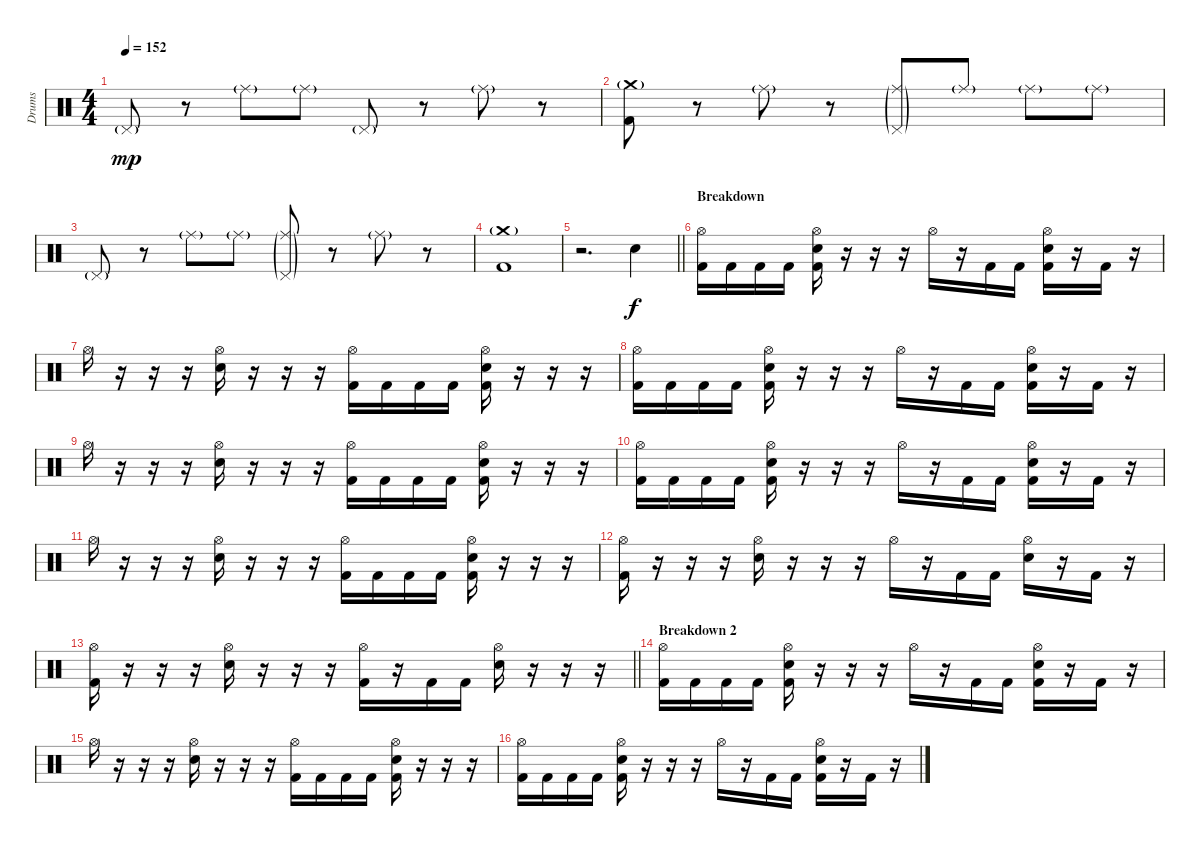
\track ("Drums" "Drums") {instrument percussion}
\staff
\articulation defaults
\ts (4 4)
\tempo 152
\clef neutral
\ks c "Pedal Hi-Hat (hit)"{g}.8{dy mp}
r.8 "Ride (middle)"{g}.8 "Ride (middle)"{g}.8 "Pedal Hi-Hat (hit)"{g}.8 r.8 "Ride (middle)"{g}.8 r.8 |
("Crash medium (hit)"{g} "Kick (hit) 2").8 r.8 "Ride (middle)"{g}.8 r.8 ("Ride (middle)"{g} "Pedal Hi-Hat (hit)"{g}).8 "Ride (middle)"{g}.8 "Ride (middle)"{g}.8 "Ride (middle)"{g}.8 |
"Pedal Hi-Hat (hit)"{g}.8 r.8 "Ride (middle)"{g}.8 "Ride (middle)"{g}.8 ("Ride (middle)"{g} "Pedal Hi-Hat (hit)"{g}).8 r.8 "Ride (middle)"{g}.8 r.8 |
("Crash medium (hit)"{g} "Kick (hit) 2").1 |
\barLineRight lightlight
r.2{d} "Electric Snare (hit)".4{dy f} |
\section ("" "Breakdown")
("Hi-Hat (open)" "Kick (hit) 2").16 "Kick (hit) 2".16 "Kick (hit) 2".16 "Kick (hit) 2".16 ("Hi-Hat (open)" "Electric Snare (hit)" "Kick (hit) 2").16 r.16 r.16 r.16 "Hi-Hat (open)".16 r.16 "Kick (hit) 2".16 "Kick (hit) 2".16 ("Hi-Hat (open)" "Electric Snare (hit)" "Kick (hit) 2").16 r.16 "Kick (hit) 2".16 r.16 |
"Hi-Hat (open)".16 r.16 r.16 r.16 ("Hi-Hat (open)" "Electric Snare (hit)").16 r.16 r.16 r.16 ("Hi-Hat (open)" "Kick (hit) 2").16 "Kick (hit) 2".16 "Kick (hit) 2".16 "Kick (hit) 2".16 ("Hi-Hat (open)" "Electric Snare (hit)" "Kick (hit) 2").16 r.16 r.16 r.16 |
("Hi-Hat (open)" "Kick (hit) 2").16 "Kick (hit) 2".16 "Kick (hit) 2".16 "Kick (hit) 2".16 ("Hi-Hat (open)" "Electric Snare (hit)" "Kick (hit) 2").16 r.16 r.16 r.16 "Hi-Hat (open)".16 r.16 "Kick (hit) 2".16 "Kick (hit) 2".16 ("Hi-Hat (open)" "Electric Snare (hit)" "Kick (hit) 2").16 r.16 "Kick (hit) 2".16 r.16 |
"Hi-Hat (open)".16 r.16 r.16 r.16 ("Hi-Hat (open)" "Electric Snare (hit)").16 r.16 r.16 r.16 ("Hi-Hat (open)" "Kick (hit) 2").16 "Kick (hit) 2".16 "Kick (hit) 2".16 "Kick (hit) 2".16 ("Hi-Hat (open)" "Electric Snare (hit)" "Kick (hit) 2").16 r.16 r.16 r.16 |
("Hi-Hat (open)" "Kick (hit) 2").16 "Kick (hit) 2".16 "Kick (hit) 2".16 "Kick (hit) 2".16 ("Hi-Hat (open)" "Electric Snare (hit)" "Kick (hit) 2").16 r.16 r.16 r.16 "Hi-Hat (open)".16 r.16 "Kick (hit) 2".16 "Kick (hit) 2".16 ("Hi-Hat (open)" "Electric Snare (hit)" "Kick (hit) 2").16 r.16 "Kick (hit) 2".16 r.16 |
"Hi-Hat (open)".16 r.16 r.16 r.16 ("Hi-Hat (open)" "Electric Snare (hit)").16 r.16 r.16 r.16 ("Hi-Hat (open)" "Kick (hit) 2").16 "Kick (hit) 2".16 "Kick (hit) 2".16 "Kick (hit) 2".16 ("Hi-Hat (open)" "Electric Snare (hit)" "Kick (hit) 2").16 r.16 r.16 r.16 |
("Hi-Hat (open)" "Kick (hit) 2").16 r.16 r.16 r.16 ("Hi-Hat (open)" "Electric Snare (hit)").16 r.16 r.16 r.16 "Hi-Hat (open)".16 r.16 "Kick (hit) 2".16 "Kick (hit) 2".16 ("Hi-Hat (open)" "Electric Snare (hit)").16 r.16 "Kick (hit) 2".16 r.16 |
\barLineRight lightlight
("Hi-Hat (open)" "Kick (hit) 2").16 r.16 r.16 r.16 ("Hi-Hat (open)" "Electric Snare (hit)").16 r.16 r.16 r.16 ("Hi-Hat (open)" "Kick (hit) 2").16 r.16 "Kick (hit) 2".16 "Kick (hit) 2".16 ("Hi-Hat (open)" "Electric Snare (hit)").16 r.16 r.16 r.16 |
\section ("" "Breakdown 2")
("Hi-Hat (open)" "Kick (hit) 2").16 "Kick (hit) 2".16 "Kick (hit) 2".16 "Kick (hit) 2".16 ("Hi-Hat (open)" "Electric Snare (hit)" "Kick (hit) 2").16 r.16 r.16 r.16 "Hi-Hat (open)".16 r.16 "Kick (hit) 2".16 "Kick (hit) 2".16 ("Hi-Hat (open)" "Electric Snare (hit)" "Kick (hit) 2").16 r.16 "Kick (hit) 2".16 r.16 |
"Hi-Hat (open)".16 r.16 r.16 r.16 ("Hi-Hat (open)" "Electric Snare (hit)").16 r.16 r.16 r.16 ("Hi-Hat (open)" "Kick (hit) 2").16 "Kick (hit) 2".16 "Kick (hit) 2".16 "Kick (hit) 2".16 ("Hi-Hat (open)" "Electric Snare (hit)" "Kick (hit) 2").16 r.16 r.16 r.16 |
("Hi-Hat (open)" "Kick (hit) 2").16 "Kick (hit) 2".16 "Kick (hit) 2".16 "Kick (hit) 2".16 ("Hi-Hat (open)" "Electric Snare (hit)" "Kick (hit) 2").16 r.16 r.16 r.16 "Hi-Hat (open)".16 r.16 "Kick (hit) 2".16 "Kick (hit) 2".16 ("Hi-Hat (open)" "Electric Snare (hit)" "Kick (hit) 2").16 r.16 "Kick (hit) 2".16 r.16
